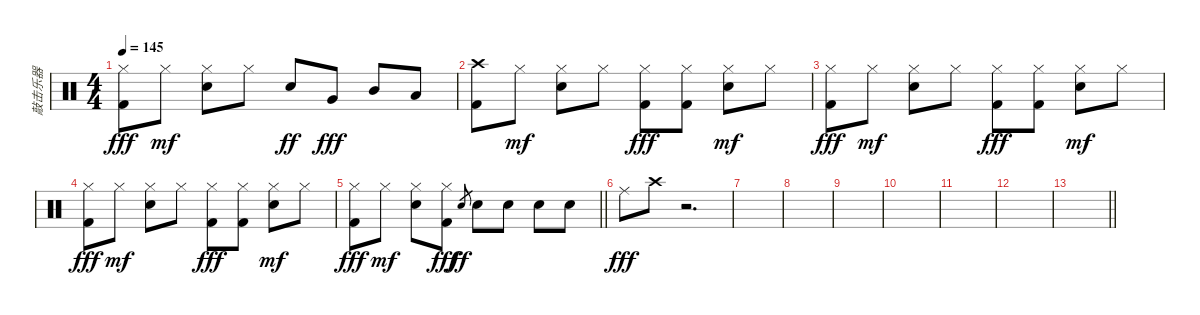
\track ("敲击乐器" "敲击乐器") {instrument percussion}
\staff {score}
\articulation defaults
\ts (4 4)
\tempo 145
\clef neutral
\ks c
("Hi-Hat (closed)" "Kick (hit) 2").8{dy fff} "Hi-Hat (closed)".8{dy mf} ("Hi-Hat (closed)" "Electric Snare (hit)").8 "Hi-Hat (closed)".8 "Electric Snare (hit)".8{dy ff} "Very Low Tom (hit)".8{dy fff} "Mid Tom (hit)".8 "Low Tom (hit)".8 |
("Crash high (hit)" "Kick (hit) 2").8 "Hi-Hat (closed)".8{dy mf} ("Hi-Hat (closed)" "Electric Snare (hit)").8 "Hi-Hat (closed)".8 ("Hi-Hat (closed)" "Kick (hit) 2").8{dy fff} ("Hi-Hat (closed)" "Kick (hit) 2").8 ("Hi-Hat (closed)" "Electric Snare (hit)").8{dy mf} "Hi-Hat (closed)".8 |
("Hi-Hat (closed)" "Kick (hit) 2").8{dy fff} "Hi-Hat (closed)".8{dy mf} ("Hi-Hat (closed)" "Electric Snare (hit)").8 "Hi-Hat (closed)".8 ("Hi-Hat (closed)" "Kick (hit) 2").8{dy fff} ("Hi-Hat (closed)" "Kick (hit) 2").8 ("Hi-Hat (closed)" "Electric Snare (hit)").8{dy mf} "Hi-Hat (closed)".8 |
("Hi-Hat (closed)" "Kick (hit) 2").8{dy fff} "Hi-Hat (closed)".8{dy mf} ("Hi-Hat (closed)" "Electric Snare (hit)").8 "Hi-Hat (closed)".8 ("Hi-Hat (closed)" "Kick (hit) 2").8{dy fff} ("Hi-Hat (closed)" "Kick (hit) 2").8 ("Hi-Hat (closed)" "Electric Snare (hit)").8{dy mf} "Hi-Hat (closed)".8 |
\barLineRight lightlight
("Hi-Hat (closed)" "Kick (hit) 2").8{dy fff} "Hi-Hat (closed)".8{dy mf} ("Hi-Hat (closed)" "Electric Snare (hit)").8 ("Hi-Hat (closed)" "Kick (hit) 2").8{dy fff} "Electric Snare (hit)".8{gr dy ff} "Electric Snare (hit)".8 "Electric Snare (hit)".8 "Electric Snare (hit)".8 "Electric Snare (hit)".8 |
"Ride (middle)".8{dy fff} "Crash high (hit)".8 r.2{d} |
|
|
|
|
|
|
\barLineRight lightlight
